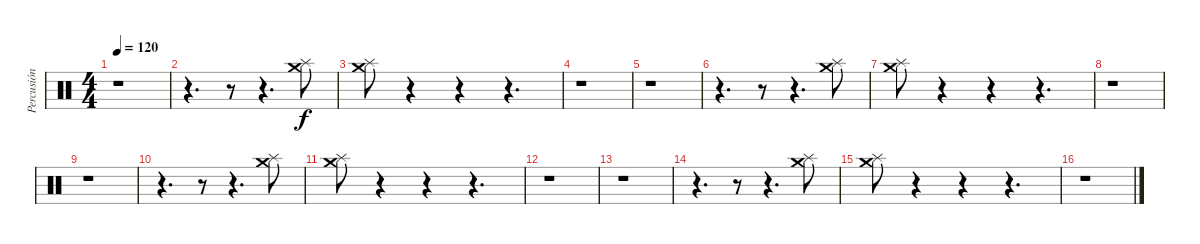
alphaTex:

\track ("Percusión" "Percusión") {instrument percussion}
\staff {score}
\articulation defaults
\ts (4 4)
\tempo 120
\clef neutral
\ks c
r.1{dy f} |
r.4{d} r.8 r.4{d} ("Splash (hit)" "Crash medium (hit)").8 |
("Splash (hit)" "Crash medium (hit)").8 r.4 r.4 r.4{d} |
r.1 |
r.1 |
r.4{d} r.8 r.4{d} ("Splash (hit)" "Crash medium (hit)").8 |
("Splash (hit)" "Crash medium (hit)").8 r.4 r.4 r.4{d} |
r.1 |
r.1 |
r.4{d} r.8 r.4{d} ("Splash (hit)" "Crash medium (hit)").8 |
("Splash (hit)" "Crash medium (hit)").8 r.4 r.4 r.4{d} |
r.1 |
r.1 |
r.4{d} r.8 r.4{d} ("Splash (hit)" "Crash medium (hit)").8 |
("Splash (hit)" "Crash medium (hit)").8 r.4 r.4 r.4{d} |
r.1
